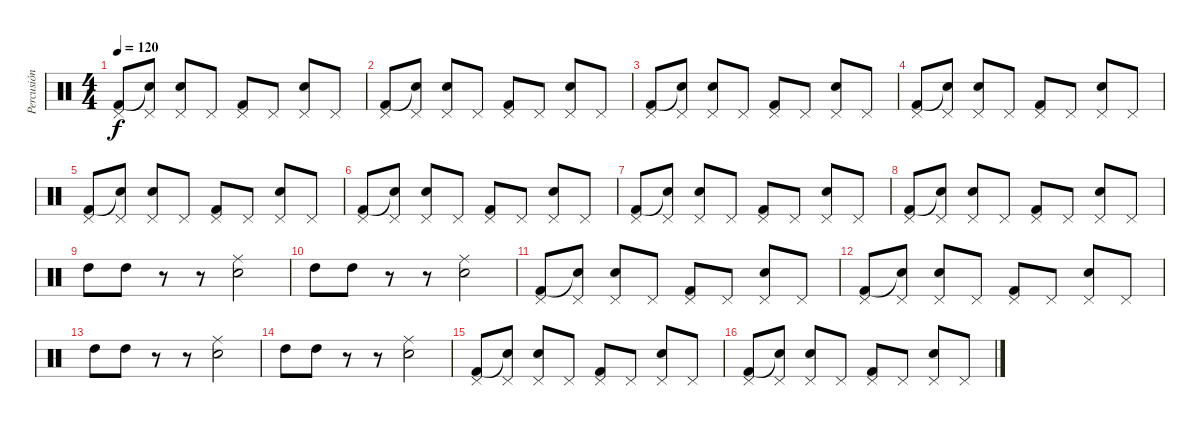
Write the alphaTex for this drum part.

\track ("Percusión" "Percusión") {instrument percussion}
\staff {score}
\articulation defaults
\ts (4 4)
\tempo 120
\clef neutral
\ks c
("Pedal Hi-Hat (hit)" "Kick (hit) 2").8{dy f} ("Pedal Hi-Hat (hit)" "Snare (hit)"{t}).8 ("Pedal Hi-Hat (hit)" "Snare (hit) 2").8 "Pedal Hi-Hat (hit)".8 ("Pedal Hi-Hat (hit)" "Kick (hit) 2").8 "Pedal Hi-Hat (hit)".8 ("Pedal Hi-Hat (hit)" "Snare (hit) 2").8 "Pedal Hi-Hat (hit)".8 |
("Pedal Hi-Hat (hit)" "Kick (hit) 2").8 ("Pedal Hi-Hat (hit)" "Snare (hit)"{t}).8 ("Pedal Hi-Hat (hit)" "Snare (hit) 2").8 "Pedal Hi-Hat (hit)".8 ("Pedal Hi-Hat (hit)" "Kick (hit) 2").8 "Pedal Hi-Hat (hit)".8 ("Pedal Hi-Hat (hit)" "Snare (hit) 2").8 "Pedal Hi-Hat (hit)".8 |
("Pedal Hi-Hat (hit)" "Kick (hit) 2").8 ("Pedal Hi-Hat (hit)" "Snare (hit)"{t}).8 ("Pedal Hi-Hat (hit)" "Snare (hit) 2").8 "Pedal Hi-Hat (hit)".8 ("Pedal Hi-Hat (hit)" "Kick (hit) 2").8 "Pedal Hi-Hat (hit)".8 ("Pedal Hi-Hat (hit)" "Snare (hit) 2").8 "Pedal Hi-Hat (hit)".8 |
("Pedal Hi-Hat (hit)" "Kick (hit) 2").8 ("Pedal Hi-Hat (hit)" "Snare (hit)"{t}).8 ("Pedal Hi-Hat (hit)" "Snare (hit) 2").8 "Pedal Hi-Hat (hit)".8 ("Pedal Hi-Hat (hit)" "Kick (hit) 2").8 "Pedal Hi-Hat (hit)".8 ("Pedal Hi-Hat (hit)" "Snare (hit) 2").8 "Pedal Hi-Hat (hit)".8 |
("Pedal Hi-Hat (hit)" "Kick (hit) 2").8 ("Pedal Hi-Hat (hit)" "Snare (hit)"{t}).8 ("Pedal Hi-Hat (hit)" "Snare (hit) 2").8 "Pedal Hi-Hat (hit)".8 ("Pedal Hi-Hat (hit)" "Kick (hit) 2").8 "Pedal Hi-Hat (hit)".8 ("Pedal Hi-Hat (hit)" "Snare (hit) 2").8 "Pedal Hi-Hat (hit)".8 |
("Pedal Hi-Hat (hit)" "Kick (hit) 2").8 ("Pedal Hi-Hat (hit)" "Snare (hit)"{t}).8 ("Pedal Hi-Hat (hit)" "Snare (hit) 2").8 "Pedal Hi-Hat (hit)".8 ("Pedal Hi-Hat (hit)" "Kick (hit) 2").8 "Pedal Hi-Hat (hit)".8 ("Pedal Hi-Hat (hit)" "Snare (hit) 2").8 "Pedal Hi-Hat (hit)".8 |
("Pedal Hi-Hat (hit)" "Kick (hit) 2").8 ("Pedal Hi-Hat (hit)" "Snare (hit)"{t}).8 ("Pedal Hi-Hat (hit)" "Snare (hit) 2").8 "Pedal Hi-Hat (hit)".8 ("Pedal Hi-Hat (hit)" "Kick (hit) 2").8 "Pedal Hi-Hat (hit)".8 ("Pedal Hi-Hat (hit)" "Snare (hit) 2").8 "Pedal Hi-Hat (hit)".8 |
("Pedal Hi-Hat (hit)" "Kick (hit) 2").8 ("Pedal Hi-Hat (hit)" "Snare (hit)"{t}).8 ("Pedal Hi-Hat (hit)" "Snare (hit) 2").8 "Pedal Hi-Hat (hit)".8 ("Pedal Hi-Hat (hit)" "Kick (hit) 2").8 "Pedal Hi-Hat (hit)".8 ("Pedal Hi-Hat (hit)" "Snare (hit) 2").8 "Pedal Hi-Hat (hit)".8 |
"High Tom (hit)".8 "High Tom (hit)".8 r.8 r.8 ("Snare (hit) 2" "Ride (middle)").2 |
"High Tom (hit)".8 "High Tom (hit)".8 r.8 r.8 ("Snare (hit) 2" "Ride (middle)").2 |
("Pedal Hi-Hat (hit)" "Kick (hit) 2").8 ("Pedal Hi-Hat (hit)" "Snare (hit)"{t}).8 ("Pedal Hi-Hat (hit)" "Snare (hit) 2").8 "Pedal Hi-Hat (hit)".8 ("Pedal Hi-Hat (hit)" "Kick (hit) 2").8 "Pedal Hi-Hat (hit)".8 ("Pedal Hi-Hat (hit)" "Snare (hit) 2").8 "Pedal Hi-Hat (hit)".8 |
("Pedal Hi-Hat (hit)" "Kick (hit) 2").8 ("Pedal Hi-Hat (hit)" "Snare (hit)"{t}).8 ("Pedal Hi-Hat (hit)" "Snare (hit) 2").8 "Pedal Hi-Hat (hit)".8 ("Pedal Hi-Hat (hit)" "Kick (hit) 2").8 "Pedal Hi-Hat (hit)".8 ("Pedal Hi-Hat (hit)" "Snare (hit) 2").8 "Pedal Hi-Hat (hit)".8 |
"High Tom (hit)".8 "High Tom (hit)".8 r.8 r.8 ("Snare (hit) 2" "Ride (middle)").2 |
"High Tom (hit)".8 "High Tom (hit)".8 r.8 r.8 ("Snare (hit) 2" "Ride (middle)").2 |
("Pedal Hi-Hat (hit)" "Kick (hit) 2").8 ("Pedal Hi-Hat (hit)" "Snare (hit)"{t}).8 ("Pedal Hi-Hat (hit)" "Snare (hit) 2").8 "Pedal Hi-Hat (hit)".8 ("Pedal Hi-Hat (hit)" "Kick (hit) 2").8 "Pedal Hi-Hat (hit)".8 ("Pedal Hi-Hat (hit)" "Snare (hit) 2").8 "Pedal Hi-Hat (hit)".8 |
("Pedal Hi-Hat (hit)" "Kick (hit) 2").8 ("Pedal Hi-Hat (hit)" "Snare (hit)"{t}).8 ("Pedal Hi-Hat (hit)" "Snare (hit) 2").8 "Pedal Hi-Hat (hit)".8 ("Pedal Hi-Hat (hit)" "Kick (hit) 2").8 "Pedal Hi-Hat (hit)".8 ("Pedal Hi-Hat (hit)" "Snare (hit) 2").8 "Pedal Hi-Hat (hit)".8
